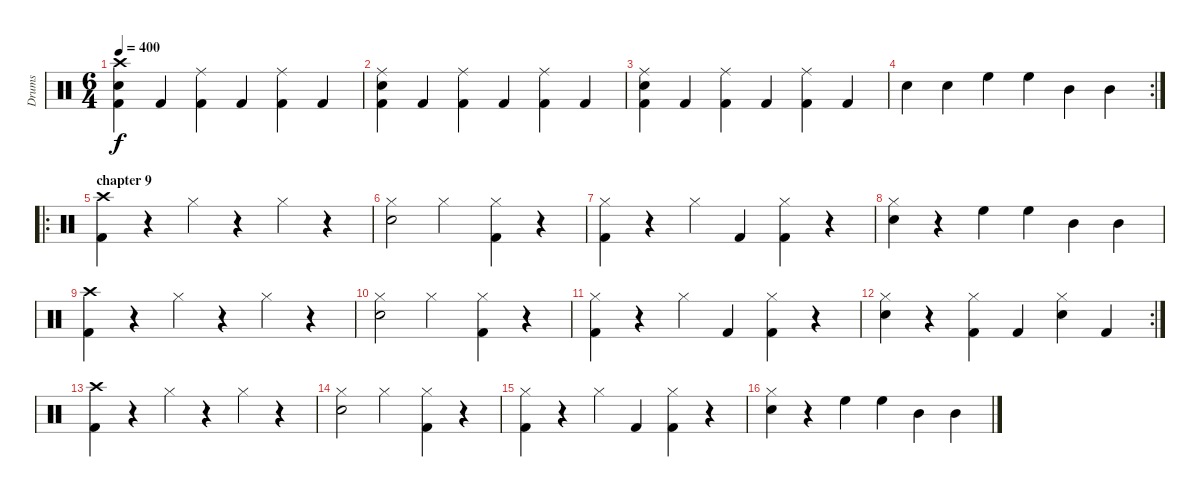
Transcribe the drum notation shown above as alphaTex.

\track ("Drums" "Drums") {instrument percussion}
\staff {score}
\articulation defaults
\ts (6 4)
\tempo 400
\clef neutral
\ks c
("Crash high (hit)" "Snare (hit) 2" "Kick (hit) 2").4{dy f} "Kick (hit) 2".4 ("Ride (middle)" "Kick (hit) 2").4 "Kick (hit) 2".4 ("Ride (middle)" "Kick (hit) 2").4 "Kick (hit) 2".4 |
("Ride (middle)" "Snare (hit) 2" "Kick (hit) 2").4 "Kick (hit) 2".4 ("Ride (middle)" "Kick (hit) 2").4 "Kick (hit) 2".4 ("Ride (middle)" "Kick (hit) 2").4 "Kick (hit) 2".4 |
("Ride (middle)" "Snare (hit) 2" "Kick (hit) 2").4 "Kick (hit) 2".4 ("Ride (middle)" "Kick (hit) 2").4 "Kick (hit) 2".4 ("Ride (middle)" "Kick (hit) 2").4 "Kick (hit) 2".4 |
\rc 2 "Snare (hit) 2".4 "Snare (hit) 2".4 "High Floor Tom (hit)".4 "High Floor Tom (hit)".4 "Mid Tom (hit)".4 "Mid Tom (hit)".4
|
\ro
\section ("" "chapter 9")
("Crash high (hit)" "Kick (hit) 2").4 r.4 "Hi-Hat (closed)".4 r.4 "Hi-Hat (closed)".4 r.4 |
("Hi-Hat (closed)" "Snare (hit) 2").2 "Hi-Hat (closed)".2 ("Hi-Hat (closed)" "Kick (hit) 2").4 r.4 |
("Hi-Hat (closed)" "Kick (hit) 2").4 r.4 "Hi-Hat (closed)".4 "Kick (hit) 2".4 ("Hi-Hat (closed)" "Kick (hit) 2").4 r.4 |
("Hi-Hat (closed)" "Snare (hit) 2").4 r.4 "High Floor Tom (hit)".4 "High Floor Tom (hit)".4 "Mid Tom (hit)".4 "Mid Tom (hit)".4 |
("Crash high (hit)" "Kick (hit) 2").4 r.4 "Hi-Hat (closed)".4 r.4 "Hi-Hat (closed)".4 r.4 |
("Hi-Hat (closed)" "Snare (hit) 2").2 "Hi-Hat (closed)".2 ("Hi-Hat (closed)" "Kick (hit) 2").4 r.4 |
("Hi-Hat (closed)" "Kick (hit) 2").4 r.4 "Hi-Hat (closed)".4 "Kick (hit) 2".4 ("Hi-Hat (closed)" "Kick (hit) 2").4 r.4 |
\rc 2
("Hi-Hat (closed)" "Snare (hit) 2").4 r.4 ("Hi-Hat (closed)" "Kick (hit) 2").4 "Kick (hit) 2".4 ("Hi-Hat (closed)" "Snare (hit) 2").4 "Kick (hit) 2".4 |
("Crash high (hit)" "Kick (hit) 2").4 r.4 "Hi-Hat (closed)".4 r.4 "Hi-Hat (closed)".4 r.4 |
("Hi-Hat (closed)" "Snare (hit) 2").2 "Hi-Hat (closed)".2 ("Hi-Hat (closed)" "Kick (hit) 2").4 r.4 |
("Hi-Hat (closed)" "Kick (hit) 2").4 r.4 "Hi-Hat (closed)".4 "Kick (hit) 2".4 ("Hi-Hat (closed)" "Kick (hit) 2").4 r.4 |
("Hi-Hat (closed)" "Snare (hit) 2").4 r.4 "High Floor Tom (hit)".4 "High Floor Tom (hit)".4 "Mid Tom (hit)".4 "Mid Tom (hit)".4
